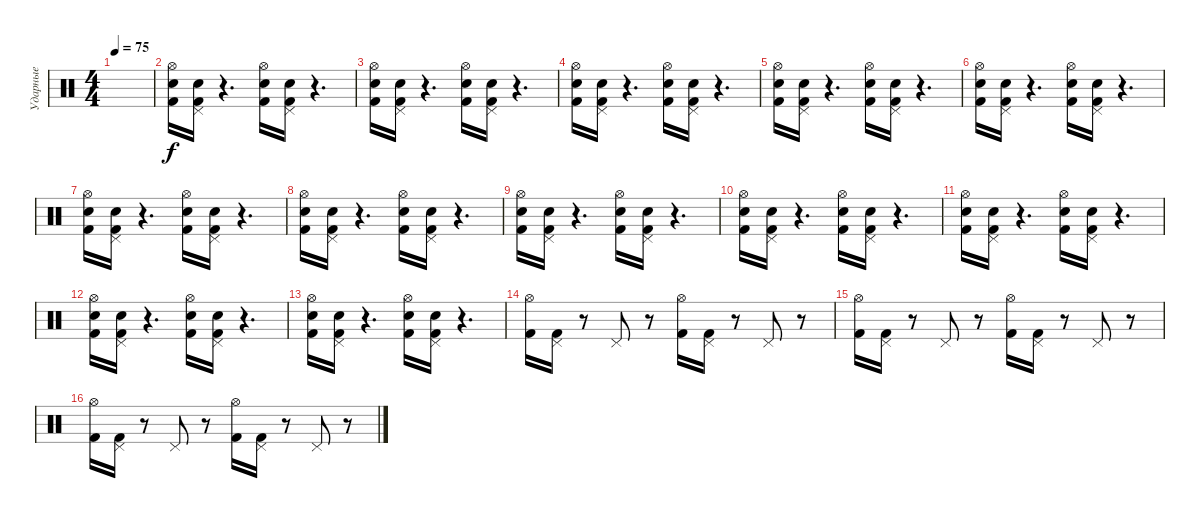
\track ("Ударные" "Ударные") {instrument percussion}
\staff {score}
\articulation defaults
\ts (4 4)
\tempo 75
\clef neutral
\ks c
|
("Hi-Hat (open)" "Electric Snare (hit)" "Kick (hit) 2").16 ("Pedal Hi-Hat (hit)" "Electric Snare (hit)" "Kick (hit) 2").16 r.4{d} ("Hi-Hat (open)" "Electric Snare (hit)" "Kick (hit) 2").16 ("Pedal Hi-Hat (hit)" "Electric Snare (hit)" "Kick (hit) 2").16 r.4{d} |
("Hi-Hat (open)" "Electric Snare (hit)" "Kick (hit) 2").16 ("Pedal Hi-Hat (hit)" "Electric Snare (hit)" "Kick (hit) 2").16 r.4{d} ("Hi-Hat (open)" "Electric Snare (hit)" "Kick (hit) 2").16 ("Pedal Hi-Hat (hit)" "Electric Snare (hit)" "Kick (hit) 2").16 r.4{d} |
("Hi-Hat (open)" "Electric Snare (hit)" "Kick (hit) 2").16 ("Pedal Hi-Hat (hit)" "Electric Snare (hit)" "Kick (hit) 2").16 r.4{d} ("Hi-Hat (open)" "Electric Snare (hit)" "Kick (hit) 2").16 ("Pedal Hi-Hat (hit)" "Electric Snare (hit)" "Kick (hit) 2").16 r.4{d} |
("Hi-Hat (open)" "Electric Snare (hit)" "Kick (hit) 2").16 ("Pedal Hi-Hat (hit)" "Electric Snare (hit)" "Kick (hit) 2").16 r.4{d} ("Hi-Hat (open)" "Electric Snare (hit)" "Kick (hit) 2").16 ("Pedal Hi-Hat (hit)" "Electric Snare (hit)" "Kick (hit) 2").16 r.4{d} |
("Hi-Hat (open)" "Electric Snare (hit)" "Kick (hit) 2").16 ("Pedal Hi-Hat (hit)" "Electric Snare (hit)" "Kick (hit) 2").16 r.4{d} ("Hi-Hat (open)" "Electric Snare (hit)" "Kick (hit) 2").16 ("Pedal Hi-Hat (hit)" "Electric Snare (hit)" "Kick (hit) 2").16 r.4{d} |
("Hi-Hat (open)" "Electric Snare (hit)" "Kick (hit) 2").16 ("Pedal Hi-Hat (hit)" "Electric Snare (hit)" "Kick (hit) 2").16 r.4{d} ("Hi-Hat (open)" "Electric Snare (hit)" "Kick (hit) 2").16 ("Pedal Hi-Hat (hit)" "Electric Snare (hit)" "Kick (hit) 2").16 r.4{d} |
("Hi-Hat (open)" "Electric Snare (hit)" "Kick (hit) 2").16 ("Pedal Hi-Hat (hit)" "Electric Snare (hit)" "Kick (hit) 2").16 r.4{d} ("Hi-Hat (open)" "Electric Snare (hit)" "Kick (hit) 2").16 ("Pedal Hi-Hat (hit)" "Electric Snare (hit)" "Kick (hit) 2").16 r.4{d} |
("Hi-Hat (open)" "Electric Snare (hit)" "Kick (hit) 2").16 ("Pedal Hi-Hat (hit)" "Electric Snare (hit)" "Kick (hit) 2").16 r.4{d} ("Hi-Hat (open)" "Electric Snare (hit)" "Kick (hit) 2").16 ("Pedal Hi-Hat (hit)" "Electric Snare (hit)" "Kick (hit) 2").16 r.4{d} |
("Hi-Hat (open)" "Electric Snare (hit)" "Kick (hit) 2").16 ("Pedal Hi-Hat (hit)" "Electric Snare (hit)" "Kick (hit) 2").16 r.4{d} ("Hi-Hat (open)" "Electric Snare (hit)" "Kick (hit) 2").16 ("Pedal Hi-Hat (hit)" "Electric Snare (hit)" "Kick (hit) 2").16 r.4{d} |
("Hi-Hat (open)" "Electric Snare (hit)" "Kick (hit) 2").16 ("Pedal Hi-Hat (hit)" "Electric Snare (hit)" "Kick (hit) 2").16 r.4{d} ("Hi-Hat (open)" "Electric Snare (hit)" "Kick (hit) 2").16 ("Pedal Hi-Hat (hit)" "Electric Snare (hit)" "Kick (hit) 2").16 r.4{d} |
("Hi-Hat (open)" "Electric Snare (hit)" "Kick (hit) 2").16 ("Pedal Hi-Hat (hit)" "Electric Snare (hit)" "Kick (hit) 2").16 r.4{d} ("Hi-Hat (open)" "Electric Snare (hit)" "Kick (hit) 2").16 ("Pedal Hi-Hat (hit)" "Electric Snare (hit)" "Kick (hit) 2").16 r.4{d} |
("Hi-Hat (open)" "Electric Snare (hit)" "Kick (hit) 2").16 ("Pedal Hi-Hat (hit)" "Electric Snare (hit)" "Kick (hit) 2").16 r.4{d} ("Hi-Hat (open)" "Electric Snare (hit)" "Kick (hit) 2").16 ("Pedal Hi-Hat (hit)" "Electric Snare (hit)" "Kick (hit) 2").16 r.4{d} |
("Hi-Hat (open)" "Kick (hit) 2").16 ("Pedal Hi-Hat (hit)" "Kick (hit) 2").16 r.8 "Pedal Hi-Hat (hit)".8 r.8 ("Hi-Hat (open)" "Kick (hit) 2").16 ("Pedal Hi-Hat (hit)" "Kick (hit) 2").16 r.8 "Pedal Hi-Hat (hit)".8 r.8 |
("Hi-Hat (open)" "Kick (hit) 2").16 ("Pedal Hi-Hat (hit)" "Kick (hit) 2").16 r.8 "Pedal Hi-Hat (hit)".8 r.8 ("Hi-Hat (open)" "Kick (hit) 2").16 ("Pedal Hi-Hat (hit)" "Kick (hit) 2").16 r.8 "Pedal Hi-Hat (hit)".8 r.8 |
("Hi-Hat (open)" "Kick (hit) 2").16 ("Pedal Hi-Hat (hit)" "Kick (hit) 2").16 r.8 "Pedal Hi-Hat (hit)".8 r.8 ("Hi-Hat (open)" "Kick (hit) 2").16 ("Pedal Hi-Hat (hit)" "Kick (hit) 2").16 r.8 "Pedal Hi-Hat (hit)".8 r.8
